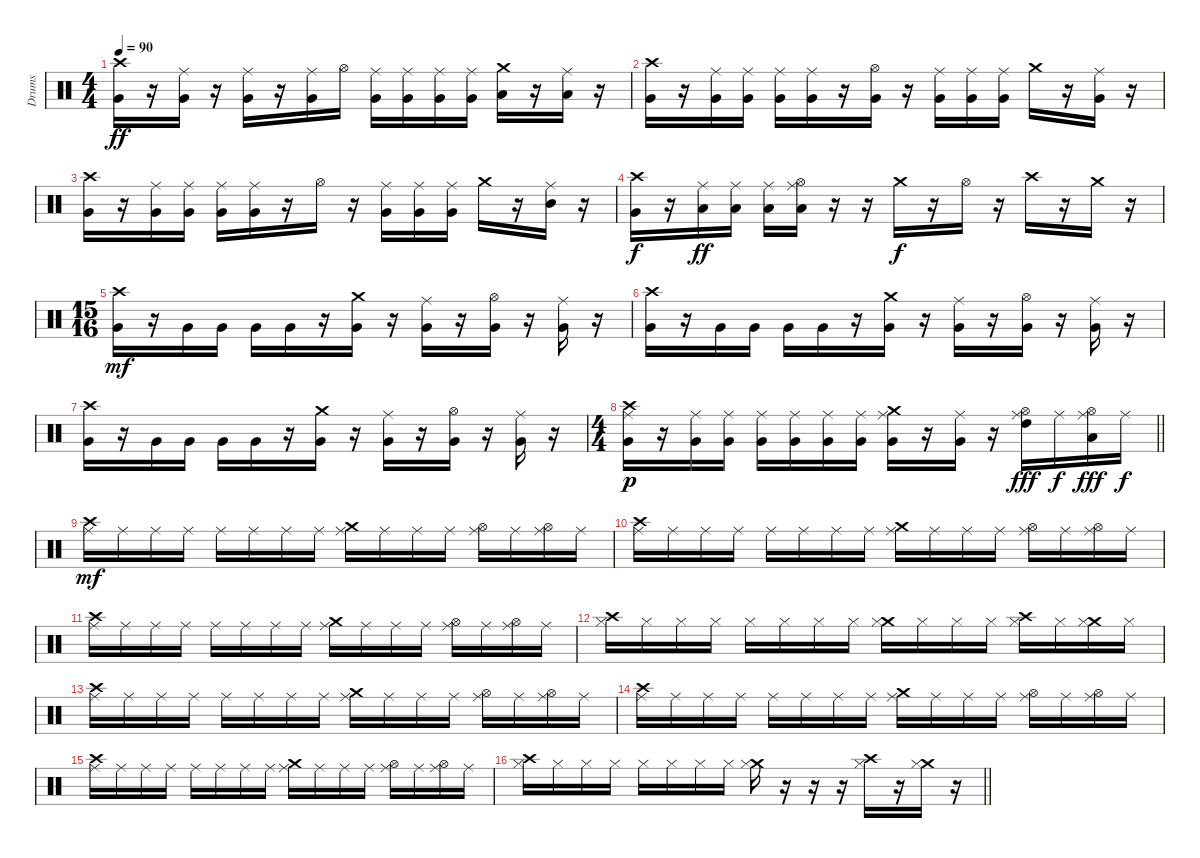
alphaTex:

\track ("Drums" "Drums") {instrument percussion}
\staff {score}
\articulation defaults
\ts (4 4)
\tempo 90
\clef neutral
\ks c
("Crash high (hit)" "Very Low Tom (hit)").16{dy ff} r.16 ("Ride (middle)" "Very Low Tom (hit)").16 r.16 ("Ride (middle)" "Very Low Tom (hit)").16 r.16 ("Ride (middle)" "Very Low Tom (hit)").16 "Hi-Hat (open)".16 ("Ride (middle)" "Very Low Tom (hit)").16 ("Ride (middle)" "Very Low Tom (hit)").16 ("Ride (middle)" "Very Low Tom (hit)").16 ("Ride (middle)" "Very Low Tom (hit)").16 ("Crash medium (hit)" "Low Tom (hit)").16 r.16 ("Ride (middle)" "Low Tom (hit)").16 r.16 |
("Crash high (hit)" "Very Low Tom (hit)").16 r.16 ("Ride (middle)" "Very Low Tom (hit)").16 ("Ride (middle)" "Very Low Tom (hit)").16 ("Ride (middle)" "Very Low Tom (hit)").16 ("Ride (middle)" "Very Low Tom (hit)").16 r.16 ("Hi-Hat (open)" "Very Low Tom (hit)").16 r.16 ("Ride (middle)" "Very Low Tom (hit)").16 ("Ride (middle)" "Very Low Tom (hit)").16 ("Ride (middle)" "Very Low Tom (hit)").16 "Crash medium (hit)".16 r.16 ("Ride (middle)" "Very Low Tom (hit)").16 r.16 |
("Crash high (hit)" "Very Low Tom (hit)").16 r.16 ("Ride (middle)" "Very Low Tom (hit)").16 ("Ride (middle)" "Very Low Tom (hit)").16 ("Ride (middle)" "Very Low Tom (hit)").16 ("Ride (middle)" "Very Low Tom (hit)").16 r.16 "Hi-Hat (open)".16 r.16 ("Ride (middle)" "Very Low Tom (hit)").16 ("Ride (middle)" "Very Low Tom (hit)").16 ("Ride (middle)" "Very Low Tom (hit)").16 "Crash medium (hit)".16 r.16 ("Ride (middle)" "Mid Tom (hit)").16 r.16 |
("Crash high (hit)" "Very Low Tom (hit)").16{dy f} r.16 ("Ride (middle)" "Low Tom (hit)").16{dy ff} ("Ride (middle)" "Low Tom (hit)").16 ("Ride (middle)" "Low Tom (hit)").16 ("Hi-Hat (open)" "Ride (middle)" "Low Tom (hit)").16 r.16 r.16 "Crash medium (hit)".16{dy f} r.16 "Hi-Hat (open)".16 r.16 "Crash high (hit)".16 r.16 "Crash medium (hit)".16 r.16 |
\ts (15 16)
("Crash high (hit)" "Very Low Tom (hit)").16{dy mf} r.16 "Very Low Tom (hit)".16 "Very Low Tom (hit)".16 "Very Low Tom (hit)".16 "Very Low Tom (hit)".16 r.16 ("Crash medium (hit)" "Very Low Tom (hit)").16 r.16 ("Ride (middle)" "Very Low Tom (hit)").16 r.16 ("Hi-Hat (open)" "Very Low Tom (hit)").16 r.16 ("Ride (middle)" "Very Low Tom (hit)").16 r.16 |
("Crash high (hit)" "Very Low Tom (hit)").16 r.16 "Very Low Tom (hit)".16 "Very Low Tom (hit)".16 "Very Low Tom (hit)".16 "Very Low Tom (hit)".16 r.16 ("Crash medium (hit)" "Very Low Tom (hit)").16 r.16 ("Ride (middle)" "Very Low Tom (hit)").16 r.16 ("Hi-Hat (open)" "Very Low Tom (hit)").16 r.16 ("Ride (middle)" "Very Low Tom (hit)").16 r.16 |
("Crash high (hit)" "Very Low Tom (hit)").16 r.16 "Very Low Tom (hit)".16 "Very Low Tom (hit)".16 "Very Low Tom (hit)".16 "Very Low Tom (hit)".16 r.16 ("Crash medium (hit)" "Very Low Tom (hit)").16 r.16 ("Ride (middle)" "Very Low Tom (hit)").16 r.16 ("Hi-Hat (open)" "Very Low Tom (hit)").16 r.16 ("Ride (middle)" "Very Low Tom (hit)").16 r.16 |
\ts (4 4)
\barLineRight lightlight
("Crash high (hit)" "Ride (middle)" "Very Low Tom (hit)").16{dy p} r.16 ("Ride (middle)" "Very Low Tom (hit)").16 ("Ride (middle)" "Very Low Tom (hit)").16 ("Ride (middle)" "Very Low Tom (hit)").16 ("Ride (middle)" "Very Low Tom (hit)").16 ("Ride (middle)" "Very Low Tom (hit)").16 ("Ride (middle)" "Very Low Tom (hit)").16 ("Crash medium (hit)" "Ride (middle)" "Very Low Tom (hit)").16 r.16 ("Ride (middle)" "Very Low Tom (hit)").16 r.16 ("Hi-Hat (open)" "Ride (middle)" "High Tom (hit)").16{dy fff} "Ride (middle)".16{dy f} ("Hi-Hat (open)" "Ride (middle)" "Low Tom (hit)").16{dy fff} "Ride (middle)".16{dy f} |
\section ("" "")
("Crash high (hit)" "Ride (middle)").16{dy mf} "Ride (middle)".16 "Ride (middle)".16 "Ride (middle)".16 "Ride (middle)".16 "Ride (middle)".16 "Ride (middle)".16 "Ride (middle)".16 ("Crash medium (hit)" "Ride (middle)").16 "Ride (middle)".16 "Ride (middle)".16 "Ride (middle)".16 ("Hi-Hat (open)" "Ride (middle)").16 "Ride (middle)".16 ("Hi-Hat (open)" "Ride (middle)").16 "Ride (middle)".16 |
("Crash high (hit)" "Ride (middle)").16 "Ride (middle)".16 "Ride (middle)".16 "Ride (middle)".16 "Ride (middle)".16 "Ride (middle)".16 "Ride (middle)".16 "Ride (middle)".16 ("Crash medium (hit)" "Ride (middle)").16 "Ride (middle)".16 "Ride (middle)".16 "Ride (middle)".16 ("Hi-Hat (open)" "Ride (middle)").16 "Ride (middle)".16 ("Hi-Hat (open)" "Ride (middle)").16 "Ride (middle)".16 |
("Crash high (hit)" "Ride (middle)").16 "Ride (middle)".16 "Ride (middle)".16 "Ride (middle)".16 "Ride (middle)".16 "Ride (middle)".16 "Ride (middle)".16 "Ride (middle)".16 ("Crash medium (hit)" "Ride (middle)").16 "Ride (middle)".16 "Ride (middle)".16 "Ride (middle)".16 ("Hi-Hat (open)" "Ride (middle)").16 "Ride (middle)".16 ("Hi-Hat (open)" "Ride (middle)").16 "Ride (middle)".16 |
("Crash high (hit)" "Hi-Hat (closed)").16 "Hi-Hat (closed)".16 "Hi-Hat (closed)".16 "Hi-Hat (closed)".16 "Hi-Hat (closed)".16 "Hi-Hat (closed)".16 "Hi-Hat (closed)".16 "Hi-Hat (closed)".16 ("Crash medium (hit)" "Hi-Hat (closed)").16 "Hi-Hat (closed)".16 "Hi-Hat (closed)".16 "Hi-Hat (closed)".16 ("Crash high (hit)" "Hi-Hat (closed)").16 "Hi-Hat (closed)".16 ("Crash medium (hit)" "Hi-Hat (closed)").16 "Hi-Hat (closed)".16 |
("Crash high (hit)" "Ride (middle)").16 "Ride (middle)".16 "Ride (middle)".16 "Ride (middle)".16 "Ride (middle)".16 "Ride (middle)".16 "Ride (middle)".16 "Ride (middle)".16 ("Crash medium (hit)" "Ride (middle)").16 "Ride (middle)".16 "Ride (middle)".16 "Ride (middle)".16 ("Hi-Hat (open)" "Ride (middle)").16 "Ride (middle)".16 ("Hi-Hat (open)" "Ride (middle)").16 "Ride (middle)".16 |
("Crash high (hit)" "Ride (middle)").16 "Ride (middle)".16 "Ride (middle)".16 "Ride (middle)".16 "Ride (middle)".16 "Ride (middle)".16 "Ride (middle)".16 "Ride (middle)".16 ("Crash medium (hit)" "Ride (middle)").16 "Ride (middle)".16 "Ride (middle)".16 "Ride (middle)".16 ("Hi-Hat (open)" "Ride (middle)").16 "Ride (middle)".16 ("Hi-Hat (open)" "Ride (middle)").16 "Ride (middle)".16 |
("Crash high (hit)" "Ride (middle)").16 "Ride (middle)".16 "Ride (middle)".16 "Ride (middle)".16 "Ride (middle)".16 "Ride (middle)".16 "Ride (middle)".16 "Ride (middle)".16 ("Crash medium (hit)" "Ride (middle)").16 "Ride (middle)".16 "Ride (middle)".16 "Ride (middle)".16 ("Hi-Hat (open)" "Ride (middle)").16 "Ride (middle)".16 ("Hi-Hat (open)" "Ride (middle)").16 "Ride (middle)".16 |
\barLineRight lightlight
("Crash high (hit)" "Hi-Hat (closed)").16 "Hi-Hat (closed)".16 "Hi-Hat (closed)".16 "Hi-Hat (closed)".16 "Hi-Hat (closed)".16 "Hi-Hat (closed)".16 "Hi-Hat (closed)".16 "Hi-Hat (closed)".16 ("Crash medium (hit)" "Hi-Hat (closed)").16 r.16 r.16 r.16 ("Crash high (hit)" "Hi-Hat (closed)").16 r.16 ("Crash medium (hit)" "Hi-Hat (closed)").16 r.16
